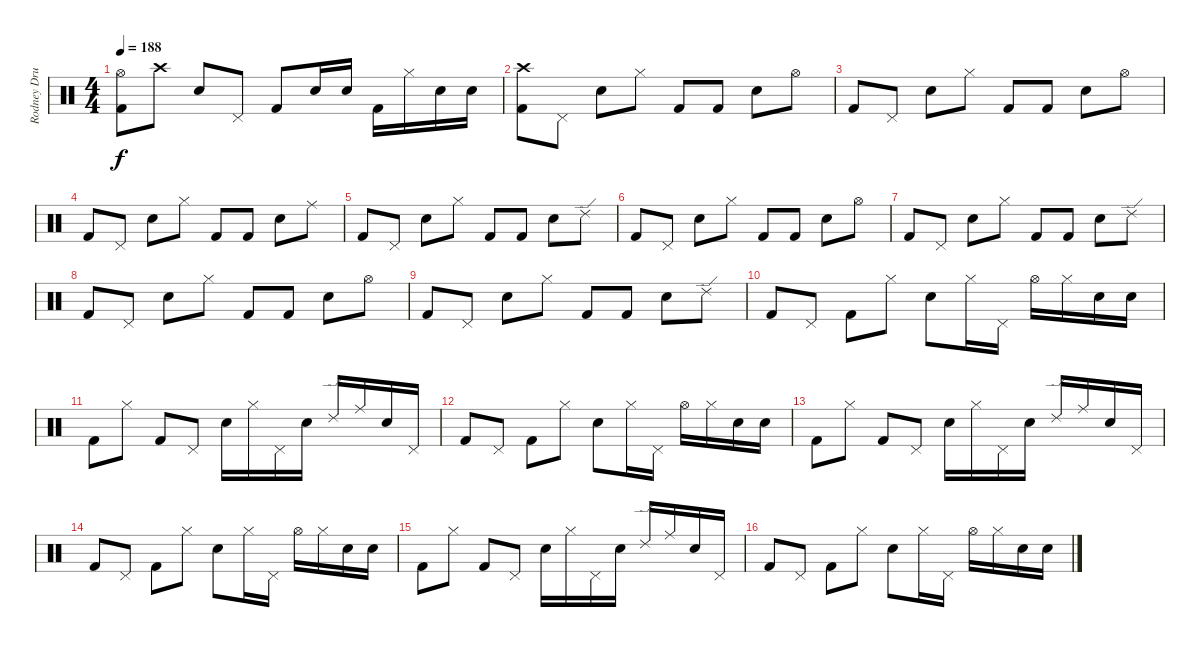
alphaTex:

\track ("Rodney Drums" "Rodney Dru") {instrument percussion}
\staff {score}
\articulation defaults
\ts (4 4)
\tempo 188
\clef neutral
\ks c
("Hi-Hat (open)" "Kick (hit) 2").8{dy f} "Crash high (hit)".8 "Electric Snare (hit)".8 "Pedal Hi-Hat (hit)".8 "Kick (hit) 2".8 "Electric Snare (hit)".16 "Electric Snare (hit)".16 "Kick (hit) 2".16 "Hi-Hat (closed)".16 "Electric Snare (hit)".16 "Electric Snare (hit)".16 |
("Crash high (hit)" "Kick (hit) 2").8 "Pedal Hi-Hat (hit)".8 "Electric Snare (hit)".8 "Hi-Hat (closed)".8 "Kick (hit) 2".8 "Kick (hit) 2".8 "Electric Snare (hit)".8 "Hi-Hat (open)".8 |
"Kick (hit) 2".8 "Pedal Hi-Hat (hit)".8 "Electric Snare (hit)".8 "Hi-Hat (closed)".8 "Kick (hit) 2".8 "Kick (hit) 2".8 "Electric Snare (hit)".8 "Hi-Hat (open)".8 |
"Kick (hit) 2".8 "Pedal Hi-Hat (hit)".8 "Electric Snare (hit)".8 "Hi-Hat (closed)".8 "Kick (hit) 2".8 "Kick (hit) 2".8 "Electric Snare (hit)".8 "Ride (middle)".8 |
"Kick (hit) 2".8 "Pedal Hi-Hat (hit)".8 "Electric Snare (hit)".8 "Hi-Hat (closed)".8 "Kick (hit) 2".8 "Kick (hit) 2".8 "Electric Snare (hit)".8 "Ride (edge) 2".8 |
"Kick (hit) 2".8 "Pedal Hi-Hat (hit)".8 "Electric Snare (hit)".8 "Hi-Hat (closed)".8 "Kick (hit) 2".8 "Kick (hit) 2".8 "Electric Snare (hit)".8 "Hi-Hat (open)".8 |
"Kick (hit) 2".8 "Pedal Hi-Hat (hit)".8 "Electric Snare (hit)".8 "Hi-Hat (closed)".8 "Kick (hit) 2".8 "Kick (hit) 2".8 "Electric Snare (hit)".8 "Ride (edge) 2".8 |
"Kick (hit) 2".8 "Pedal Hi-Hat (hit)".8 "Electric Snare (hit)".8 "Hi-Hat (closed)".8 "Kick (hit) 2".8 "Kick (hit) 2".8 "Electric Snare (hit)".8 "Hi-Hat (open)".8 |
"Kick (hit) 2".8 "Pedal Hi-Hat (hit)".8 "Electric Snare (hit)".8 "Hi-Hat (closed)".8 "Kick (hit) 2".8 "Kick (hit) 2".8 "Electric Snare (hit)".8 "Ride (edge) 2".8 |
"Kick (hit) 2".8 "Pedal Hi-Hat (hit)".8 "Kick (hit) 2".8 "Hi-Hat (closed)".8 "Electric Snare (hit)".8 "Hi-Hat (closed)".16 "Pedal Hi-Hat (hit)".16 "Hi-Hat (open)".16 "Hi-Hat (closed)".16 "Electric Snare (hit)".16 "Electric Snare (hit)".16 |
"Kick (hit) 2".8 "Hi-Hat (closed)".8 "Kick (hit) 2".8 "Pedal Hi-Hat (hit)".8 "Electric Snare (hit)".16 "Hi-Hat (closed)".16 "Pedal Hi-Hat (hit)".16 "Electric Snare (hit)".16 "Ride (edge) 2".16 "Ride (middle)".16 "Electric Snare (hit)".16 "Pedal Hi-Hat (hit)".16 |
"Kick (hit) 2".8 "Pedal Hi-Hat (hit)".8 "Kick (hit) 2".8 "Hi-Hat (closed)".8 "Electric Snare (hit)".8 "Hi-Hat (closed)".16 "Pedal Hi-Hat (hit)".16 "Hi-Hat (open)".16 "Hi-Hat (closed)".16 "Electric Snare (hit)".16 "Electric Snare (hit)".16 |
"Kick (hit) 2".8 "Hi-Hat (closed)".8 "Kick (hit) 2".8 "Pedal Hi-Hat (hit)".8 "Electric Snare (hit)".16 "Hi-Hat (closed)".16 "Pedal Hi-Hat (hit)".16 "Electric Snare (hit)".16 "Ride (edge) 2".16 "Ride (middle)".16 "Electric Snare (hit)".16 "Pedal Hi-Hat (hit)".16 |
"Kick (hit) 2".8 "Pedal Hi-Hat (hit)".8 "Kick (hit) 2".8 "Hi-Hat (closed)".8 "Electric Snare (hit)".8 "Hi-Hat (closed)".16 "Pedal Hi-Hat (hit)".16 "Hi-Hat (open)".16 "Hi-Hat (closed)".16 "Electric Snare (hit)".16 "Electric Snare (hit)".16 |
"Kick (hit) 2".8 "Hi-Hat (closed)".8 "Kick (hit) 2".8 "Pedal Hi-Hat (hit)".8 "Electric Snare (hit)".16 "Hi-Hat (closed)".16 "Pedal Hi-Hat (hit)".16 "Electric Snare (hit)".16 "Ride (edge) 2".16 "Ride (middle)".16 "Electric Snare (hit)".16 "Pedal Hi-Hat (hit)".16 |
"Kick (hit) 2".8 "Pedal Hi-Hat (hit)".8 "Kick (hit) 2".8 "Hi-Hat (closed)".8 "Electric Snare (hit)".8 "Hi-Hat (closed)".16 "Pedal Hi-Hat (hit)".16 "Hi-Hat (open)".16 "Hi-Hat (closed)".16 "Electric Snare (hit)".16 "Electric Snare (hit)".16
